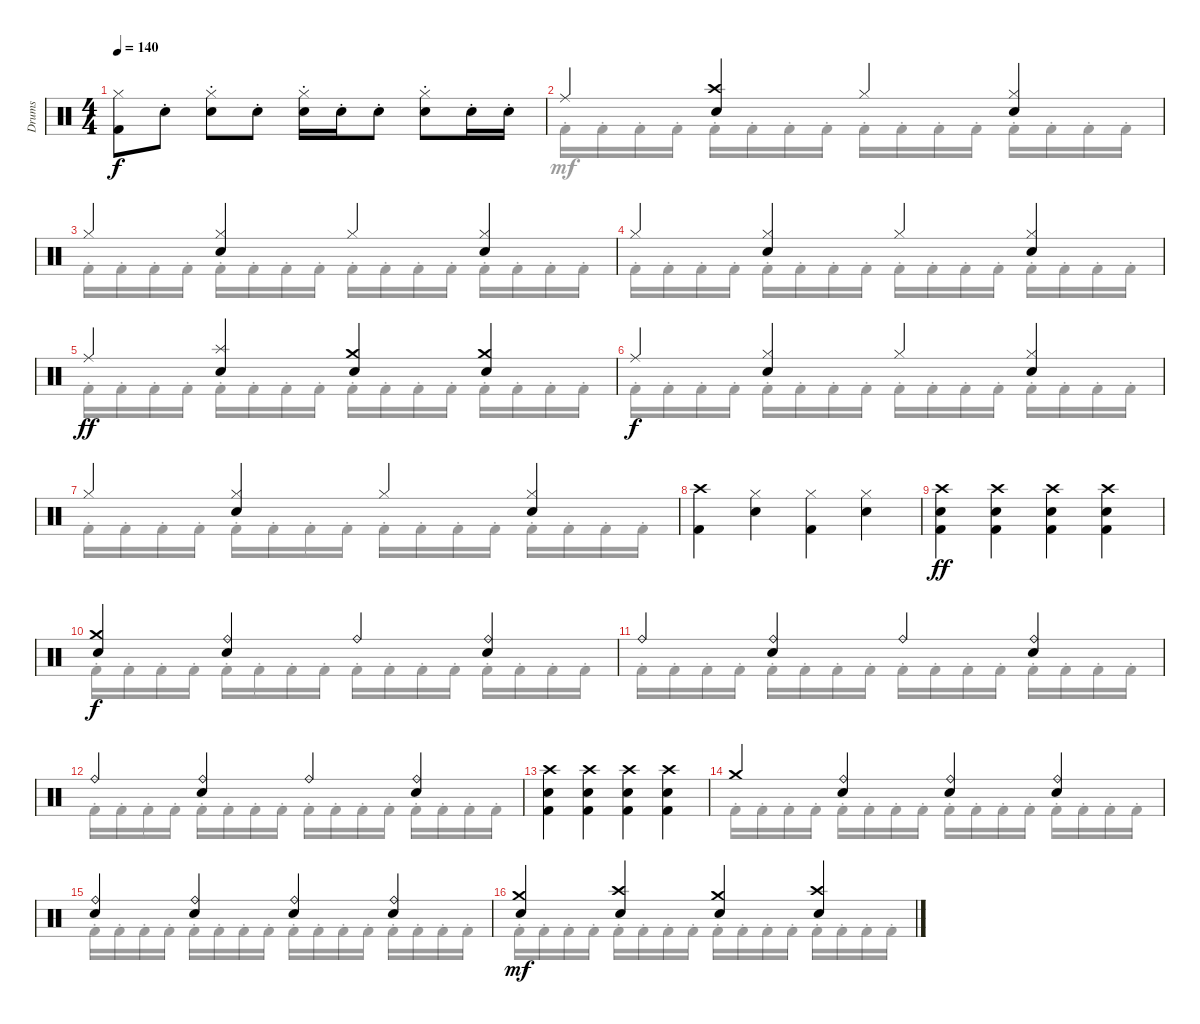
\track ("Drums" "Drums") {instrument percussion}
\staff {score}
\articulation defaults
\voice
\ts (4 4)
\tempo 140
\clef neutral
\ks aminor
("Kick (hit) 2" "Hi-Hat (closed)").8{dy f} "Electric Snare (hit)"{st}.8 ("Electric Snare (hit)"{st} "Hi-Hat (closed)").8 "Electric Snare (hit)"{st}.8 ("Electric Snare (hit)"{st} "Hi-Hat (closed)").16 "Electric Snare (hit)"{st}.16 "Electric Snare (hit)"{st}.8 ("Electric Snare (hit)"{st} "Hi-Hat (closed)").8 "Electric Snare (hit)"{st}.16 "Electric Snare (hit)"{st}.16 |
"Ride (middle)".4{volume 9} ("Crash high (hit)" "Electric Snare (hit)").4 "Hi-Hat (closed)".4 ("Electric Snare (hit)" "Hi-Hat (closed)").4 |
"Hi-Hat (closed)".4 ("Hi-Hat (closed)" "Electric Snare (hit)").4 "Hi-Hat (closed)".4 ("Electric Snare (hit)" "Hi-Hat (closed)").4 |
"Hi-Hat (closed)".4 ("Hi-Hat (closed)" "Electric Snare (hit)").4 "Hi-Hat (closed)".4 ("Electric Snare (hit)" "Hi-Hat (closed)").4 |
"Ride (middle)".4{dy ff} ("Splash (hit)" "Electric Snare (hit)").4 ("Crash medium (hit)" "Electric Snare (hit)").4 ("Crash medium (hit)" "Electric Snare (hit)").4 |
"Ride (middle)".4{dy f} ("Hi-Hat (closed)" "Electric Snare (hit)").4 "Hi-Hat (closed)".4 ("Electric Snare (hit)" "Hi-Hat (closed)").4 |
"Hi-Hat (closed)".4 ("Hi-Hat (closed)" "Electric Snare (hit)").4 "Hi-Hat (closed)".4 ("Electric Snare (hit)" "Hi-Hat (closed)").4 |
("Crash high (hit)" "Kick (hit) 2").4 ("Hi-Hat (closed)" "Electric Snare (hit)").4 ("Kick (hit) 2" "Hi-Hat (closed)").4 ("Electric Snare (hit)" "Hi-Hat (closed)").4 |
("Electric Snare (hit)" "Crash high (hit)" "Kick (hit) 2").4{dy ff} ("Electric Snare (hit)" "Crash high (hit)" "Kick (hit) 2").4 ("Electric Snare (hit)" "Crash high (hit)" "Kick (hit) 2").4 ("Electric Snare (hit)" "Crash high (hit)" "Kick (hit) 2").4 |
("Electric Snare (hit)" "Crash medium (hit)").4{dy f} ("Ride (bell)" "Electric Snare (hit)").4 "Ride (bell)".4 ("Electric Snare (hit)" "Ride (bell)").4 |
"Ride (bell)".4 ("Ride (bell)" "Electric Snare (hit)").4 "Ride (bell)".4 ("Electric Snare (hit)" "Ride (bell)").4 |
"Ride (bell)".4 ("Ride (bell)" "Electric Snare (hit)").4 "Ride (bell)".4 ("Electric Snare (hit)" "Ride (bell)").4 |
("Electric Snare (hit)" "Crash high (hit)" "Kick (hit) 2").4 ("Electric Snare (hit)" "Crash high (hit)" "Kick (hit) 2").4 ("Electric Snare (hit)" "Crash high (hit)" "Kick (hit) 2").4 ("Electric Snare (hit)" "Crash high (hit)" "Kick (hit) 2").4 |
"Crash medium (hit)".4 ("Ride (bell)" "Electric Snare (hit)").4 ("Electric Snare (hit)" "Ride (bell)").4 ("Electric Snare (hit)" "Ride (bell)").4 |
("Electric Snare (hit)" "Ride (bell)").4 ("Ride (bell)" "Electric Snare (hit)").4 ("Electric Snare (hit)" "Ride (bell)").4 ("Electric Snare (hit)" "Ride (bell)").4 |
("Crash medium (hit)" "Electric Snare (hit)").4{dy mf} ("Crash high (hit)" "Electric Snare (hit)").4 ("Crash medium (hit)" "Electric Snare (hit)").4 ("Crash high (hit)" "Electric Snare (hit)").4
\voice
\clef neutral
\ottava regular
\simile none
\ks aminor
|
"Kick (hit) 2"{st}.16 "Kick (hit) 2"{st}.16 "Kick (hit) 2"{st}.16 "Kick (hit) 2"{st}.16 "Kick (hit) 2"{st}.16 "Kick (hit) 2"{st}.16 "Kick (hit) 2"{st}.16 "Kick (hit) 2"{st}.16 "Kick (hit) 2"{st}.16 "Kick (hit) 2"{st}.16 "Kick (hit) 2"{st}.16 "Kick (hit) 2"{st}.16 "Kick (hit) 2"{st}.16 "Kick (hit) 2"{st}.16 "Kick (hit) 2"{st}.16 "Kick (hit) 2"{st}.16 |
"Kick (hit) 2"{st}.16 "Kick (hit) 2"{st}.16 "Kick (hit) 2"{st}.16 "Kick (hit) 2"{st}.16 "Kick (hit) 2"{st}.16 "Kick (hit) 2"{st}.16 "Kick (hit) 2"{st}.16 "Kick (hit) 2"{st}.16 "Kick (hit) 2"{st}.16 "Kick (hit) 2"{st}.16 "Kick (hit) 2"{st}.16 "Kick (hit) 2"{st}.16 "Kick (hit) 2"{st}.16 "Kick (hit) 2"{st}.16 "Kick (hit) 2"{st}.16 "Kick (hit) 2"{st}.16 |
"Kick (hit) 2"{st}.16 "Kick (hit) 2"{st}.16 "Kick (hit) 2"{st}.16 "Kick (hit) 2"{st}.16 "Kick (hit) 2"{st}.16 "Kick (hit) 2"{st}.16 "Kick (hit) 2"{st}.16 "Kick (hit) 2"{st}.16 "Kick (hit) 2"{st}.16 "Kick (hit) 2"{st}.16 "Kick (hit) 2"{st}.16 "Kick (hit) 2"{st}.16 "Kick (hit) 2"{st}.16 "Kick (hit) 2"{st}.16 "Kick (hit) 2"{st}.16 "Kick (hit) 2"{st}.16 |
"Kick (hit) 2"{st}.16 "Kick (hit) 2"{st}.16 "Kick (hit) 2"{st}.16 "Kick (hit) 2"{st}.16 "Kick (hit) 2"{st}.16 "Kick (hit) 2"{st}.16 "Kick (hit) 2"{st}.16 "Kick (hit) 2"{st}.16 "Kick (hit) 2"{st}.16 "Kick (hit) 2"{st}.16 "Kick (hit) 2"{st}.16 "Kick (hit) 2"{st}.16 "Kick (hit) 2"{st}.16 "Kick (hit) 2"{st}.16 "Kick (hit) 2"{st}.16 "Kick (hit) 2"{st}.16 |
"Kick (hit) 2"{st}.16 "Kick (hit) 2"{st}.16 "Kick (hit) 2"{st}.16 "Kick (hit) 2"{st}.16 "Kick (hit) 2"{st}.16 "Kick (hit) 2"{st}.16 "Kick (hit) 2"{st}.16 "Kick (hit) 2"{st}.16 "Kick (hit) 2"{st}.16 "Kick (hit) 2"{st}.16 "Kick (hit) 2"{st}.16 "Kick (hit) 2"{st}.16 "Kick (hit) 2"{st}.16 "Kick (hit) 2"{st}.16 "Kick (hit) 2"{st}.16 "Kick (hit) 2"{st}.16 |
"Kick (hit) 2"{st}.16 "Kick (hit) 2"{st}.16 "Kick (hit) 2"{st}.16 "Kick (hit) 2"{st}.16 "Kick (hit) 2"{st}.16 "Kick (hit) 2"{st}.16 "Kick (hit) 2"{st}.16 "Kick (hit) 2"{st}.16 "Kick (hit) 2"{st}.16 "Kick (hit) 2"{st}.16 "Kick (hit) 2"{st}.16 "Kick (hit) 2"{st}.16 "Kick (hit) 2"{st}.16 "Kick (hit) 2"{st}.16 "Kick (hit) 2"{st}.16 "Kick (hit) 2"{st}.16 |
|
|
"Kick (hit) 2"{st}.16 "Kick (hit) 2"{st}.16 "Kick (hit) 2"{st}.16 "Kick (hit) 2"{st}.16 "Kick (hit) 2"{st}.16 "Kick (hit) 2"{st}.16 "Kick (hit) 2"{st}.16 "Kick (hit) 2"{st}.16 "Kick (hit) 2"{st}.16 "Kick (hit) 2"{st}.16 "Kick (hit) 2"{st}.16 "Kick (hit) 2"{st}.16 "Kick (hit) 2"{st}.16 "Kick (hit) 2"{st}.16 "Kick (hit) 2"{st}.16 "Kick (hit) 2"{st}.16 |
"Kick (hit) 2"{st}.16 "Kick (hit) 2"{st}.16 "Kick (hit) 2"{st}.16 "Kick (hit) 2"{st}.16 "Kick (hit) 2"{st}.16 "Kick (hit) 2"{st}.16 "Kick (hit) 2"{st}.16 "Kick (hit) 2"{st}.16 "Kick (hit) 2"{st}.16 "Kick (hit) 2"{st}.16 "Kick (hit) 2"{st}.16 "Kick (hit) 2"{st}.16 "Kick (hit) 2"{st}.16 "Kick (hit) 2"{st}.16 "Kick (hit) 2"{st}.16 "Kick (hit) 2"{st}.16 |
"Kick (hit) 2"{st}.16 "Kick (hit) 2"{st}.16 "Kick (hit) 2"{st}.16 "Kick (hit) 2"{st}.16 "Kick (hit) 2"{st}.16 "Kick (hit) 2"{st}.16 "Kick (hit) 2"{st}.16 "Kick (hit) 2"{st}.16 "Kick (hit) 2"{st}.16 "Kick (hit) 2"{st}.16 "Kick (hit) 2"{st}.16 "Kick (hit) 2"{st}.16 "Kick (hit) 2"{st}.16 "Kick (hit) 2"{st}.16 "Kick (hit) 2"{st}.16 "Kick (hit) 2"{st}.16 |
|
"Kick (hit) 2"{st}.16 "Kick (hit) 2"{st}.16 "Kick (hit) 2"{st}.16 "Kick (hit) 2"{st}.16 "Kick (hit) 2"{st}.16 "Kick (hit) 2"{st}.16 "Kick (hit) 2"{st}.16 "Kick (hit) 2"{st}.16 "Kick (hit) 2"{st}.16 "Kick (hit) 2"{st}.16 "Kick (hit) 2"{st}.16 "Kick (hit) 2"{st}.16 "Kick (hit) 2"{st}.16 "Kick (hit) 2"{st}.16 "Kick (hit) 2"{st}.16 "Kick (hit) 2"{st}.16 |
"Kick (hit) 2"{st}.16 "Kick (hit) 2"{st}.16 "Kick (hit) 2"{st}.16 "Kick (hit) 2"{st}.16 "Kick (hit) 2"{st}.16 "Kick (hit) 2"{st}.16 "Kick (hit) 2"{st}.16 "Kick (hit) 2"{st}.16 "Kick (hit) 2"{st}.16 "Kick (hit) 2"{st}.16 "Kick (hit) 2"{st}.16 "Kick (hit) 2"{st}.16 "Kick (hit) 2"{st}.16 "Kick (hit) 2"{st}.16 "Kick (hit) 2"{st}.16 "Kick (hit) 2"{st}.16 |
"Kick (hit) 2"{st}.16 "Kick (hit) 2"{st}.16 "Kick (hit) 2"{st}.16 "Kick (hit) 2"{st}.16 "Kick (hit) 2"{st}.16 "Kick (hit) 2"{st}.16 "Kick (hit) 2"{st}.16 "Kick (hit) 2"{st}.16 "Kick (hit) 2"{st}.16 "Kick (hit) 2"{st}.16 "Kick (hit) 2"{st}.16 "Kick (hit) 2"{st}.16 "Kick (hit) 2"{st}.16 "Kick (hit) 2"{st}.16 "Kick (hit) 2"{st}.16 "Kick (hit) 2"{st}.16
